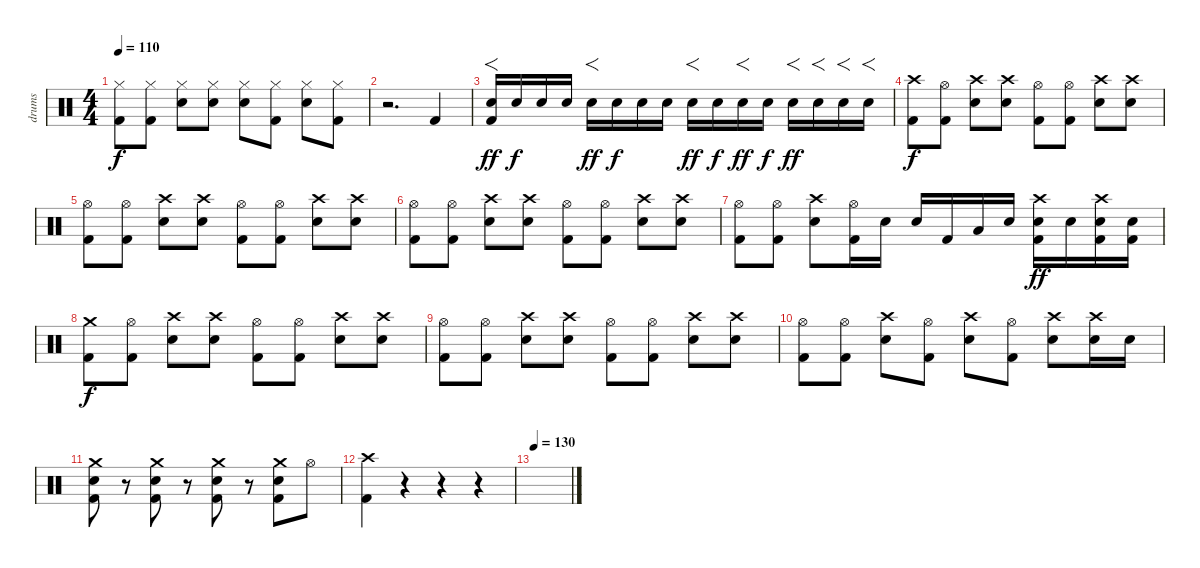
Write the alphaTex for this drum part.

\track ("drums" "drums") {instrument percussion}
\staff {score}
\articulation defaults
\ts (4 4)
\tempo 110
\clef neutral
\ks c
("Hi-Hat (closed)" "Kick (hit) 2").8{dy f} ("Hi-Hat (closed)" "Kick (hit) 2").8 ("Hi-Hat (closed)" "Snare (hit) 2").8 ("Hi-Hat (closed)" "Snare (hit) 2").8 ("Hi-Hat (closed)" "Snare (hit) 2").8 ("Hi-Hat (closed)" "Kick (hit) 2").8 ("Hi-Hat (closed)" "Snare (hit) 2").8 ("Hi-Hat (closed)" "Kick (hit) 2").8 |
r.2{d} "Kick (hit) 2".4 |
("Kick (hit) 2" "Snare (hit) 2").16{f dy ff volume 11} "Snare (hit) 2".16{dy f} "Snare (hit) 2".16 "Snare (hit) 2".16 "Snare (hit) 2".16{f dy ff} "Snare (hit) 2".16{dy f} "Snare (hit) 2".16 "Snare (hit) 2".16 "Snare (hit) 2".16{f dy ff} "Snare (hit) 2".16{dy f} "Snare (hit) 2".16{f dy ff} "Snare (hit) 2".16{dy f} "Snare (hit) 2".16{f dy ff} "Snare (hit) 2".16{f} "Snare (hit) 2".16{f} "Snare (hit) 2".16{f} |
("Crash high (hit)" "Kick (hit) 2").8{dy f} ("Hi-Hat (open)" "Kick (hit) 2").8 ("Crash high (hit)" "Snare (hit) 2").8 ("Crash high (hit)" "Snare (hit) 2").8 ("Hi-Hat (open)" "Kick (hit) 2").8 ("Hi-Hat (open)" "Kick (hit) 2").8 ("Crash high (hit)" "Snare (hit) 2").8 ("Crash high (hit)" "Snare (hit) 2").8 |
("Hi-Hat (open)" "Kick (hit) 2").8 ("Hi-Hat (open)" "Kick (hit) 2").8 ("Crash high (hit)" "Snare (hit) 2").8 ("Crash high (hit)" "Snare (hit) 2").8 ("Hi-Hat (open)" "Kick (hit) 2").8 ("Hi-Hat (open)" "Kick (hit) 2").8 ("Crash high (hit)" "Snare (hit) 2").8 ("Crash high (hit)" "Snare (hit) 2").8 |
("Hi-Hat (open)" "Kick (hit) 2").8 ("Hi-Hat (open)" "Kick (hit) 2").8 ("Crash high (hit)" "Snare (hit) 2").8 ("Crash high (hit)" "Snare (hit) 2").8 ("Hi-Hat (open)" "Kick (hit) 2").8 ("Hi-Hat (open)" "Kick (hit) 2").8 ("Crash high (hit)" "Snare (hit) 2").8 ("Crash high (hit)" "Snare (hit) 2").8 |
("Hi-Hat (open)" "Kick (hit) 2").8 ("Hi-Hat (open)" "Kick (hit) 2").8 ("Crash high (hit)" "Snare (hit) 2").8 ("Hi-Hat (open)" "Kick (hit) 2").16 "Snare (hit) 2".16 "Snare (hit) 2".16 "Kick (hit) 2".16 "Low Tom (hit)".16 "Snare (hit) 2".16 ("Crash high (hit)" "Snare (hit) 2" "Kick (hit) 2").16{dy ff} "Snare (hit) 2".16 ("Crash high (hit)" "Snare (hit) 2" "Kick (hit) 2").16 ("Snare (hit) 2" "Kick (hit) 2").16 |
("Crash medium (hit)" "Kick (hit) 2").8{dy f} ("Hi-Hat (open)" "Kick (hit) 2").8 ("Crash high (hit)" "Snare (hit) 2").8 ("Crash high (hit)" "Snare (hit) 2").8 ("Hi-Hat (open)" "Kick (hit) 2").8 ("Hi-Hat (open)" "Kick (hit) 2").8 ("Crash high (hit)" "Snare (hit) 2").8 ("Crash high (hit)" "Snare (hit) 2").8 |
("Hi-Hat (open)" "Kick (hit) 2").8 ("Hi-Hat (open)" "Kick (hit) 2").8 ("Crash high (hit)" "Snare (hit) 2").8 ("Crash high (hit)" "Snare (hit) 2").8 ("Hi-Hat (open)" "Kick (hit) 2").8 ("Hi-Hat (open)" "Kick (hit) 2").8 ("Crash high (hit)" "Snare (hit) 2").8 ("Crash high (hit)" "Snare (hit) 2").8 |
("Hi-Hat (open)" "Kick (hit) 2").8 ("Hi-Hat (open)" "Kick (hit) 2").8 ("Crash high (hit)" "Snare (hit) 2").8 ("Hi-Hat (open)" "Kick (hit) 2").8 ("Crash high (hit)" "Snare (hit) 2").8 ("Hi-Hat (open)" "Kick (hit) 2").8 ("Crash high (hit)" "Snare (hit) 2").8 ("Crash high (hit)" "Snare (hit) 2").16 "Snare (hit) 2".16 |
("Crash medium (hit)" "Snare (hit) 2" "Kick (hit) 2").8 r.8 ("Crash medium (hit)" "Snare (hit) 2" "Kick (hit) 2").8 r.8 ("Crash medium (hit)" "Snare (hit) 2" "Kick (hit) 2").8 r.8 ("Crash medium (hit)" "Snare (hit) 2" "Kick (hit) 2").8 "Hi-Hat (open)".8 |
("Crash high (hit)" "Kick (hit) 2").4 r.4 r.4 r.4 |
\tempo 130
